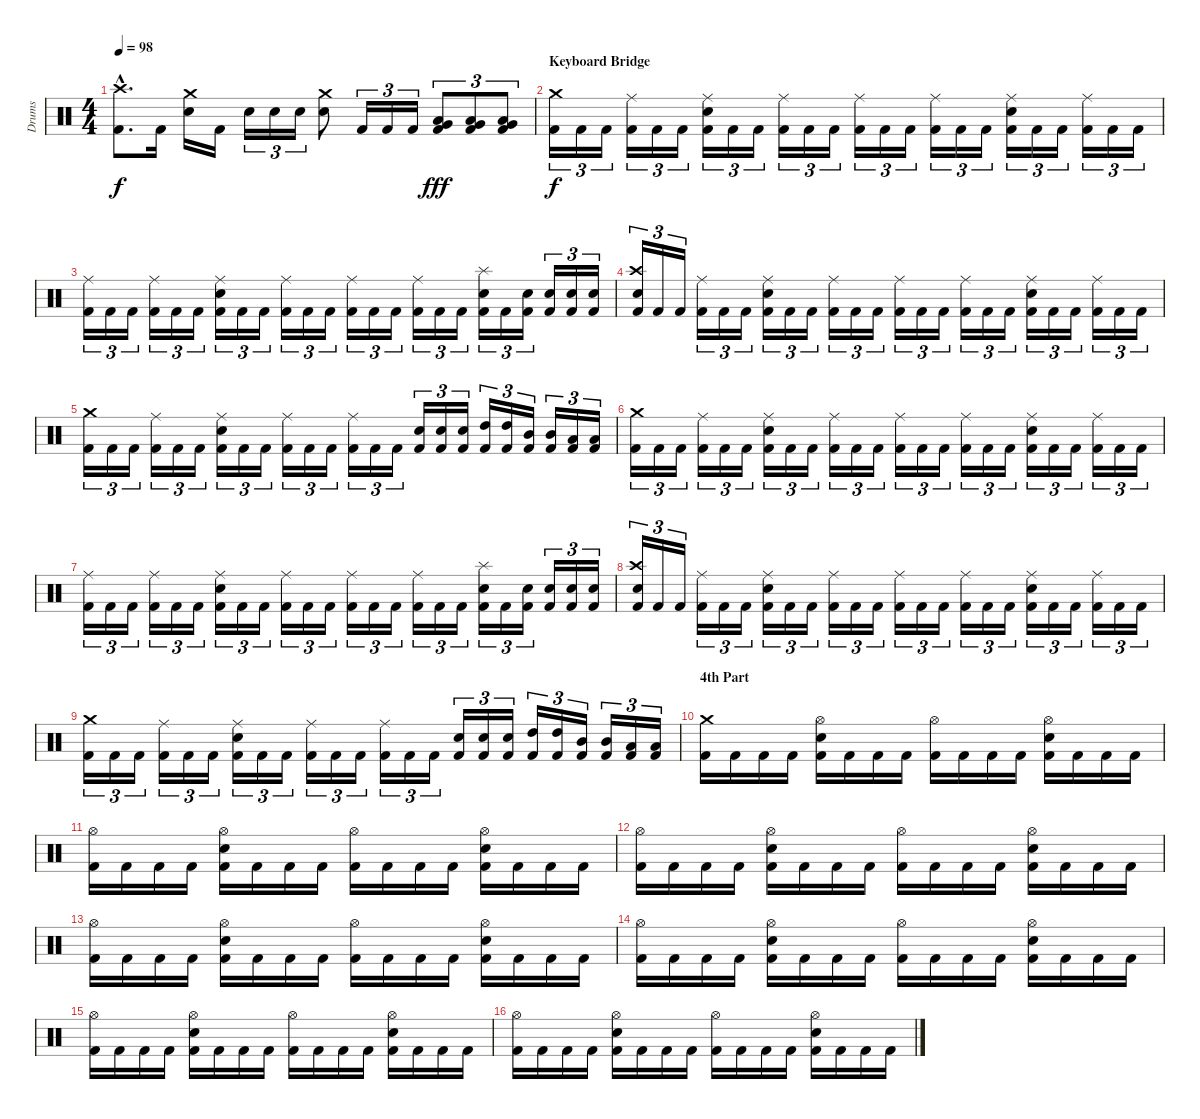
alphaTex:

\track ("Drums" "Drums") {instrument percussion}
\staff {score}
\articulation defaults
\ts (4 4)
\tempo 98
\clef neutral
\ks c
("Kick (hit) 2"{hac} "Crash high (hit)"{hac}).8{d dy f} "Kick (hit) 2".16 ("Electric Snare (hit)" "Crash medium (hit)").16 "Kick (hit) 2".16 "Electric Snare (hit)".16{tu (3 2)} "Electric Snare (hit)".16{tu (3 2)} "Electric Snare (hit)".16{tu (3 2)} ("Electric Snare (hit)" "Crash medium (hit)").8 "Kick (hit) 2".16{tu (3 2)} "Kick (hit) 2".16{tu (3 2)} "Kick (hit) 2".16{tu (3 2)} ("Kick (hit) 2" "Low Tom (hit)" "Very Low Tom (hit)").8{tu (3 2) dy fff} ("Kick (hit) 2" "Low Tom (hit)" "Very Low Tom (hit)").8{tu (3 2)} ("Kick (hit) 2" "Low Tom (hit)" "Very Low Tom (hit)").8{tu (3 2)} |
\section ("" "Keyboard Bridge")
("Kick (hit) 2" "Crash medium (hit)").16{tu (3 2) dy f} "Kick (hit) 2".16{tu (3 2)} "Kick (hit) 2".16{tu (3 2)} ("Kick (hit) 2" "Ride (middle)").16{tu (3 2)} "Kick (hit) 2".16{tu (3 2)} "Kick (hit) 2".16{tu (3 2)} ("Kick (hit) 2" "Electric Snare (hit)" "Ride (middle)").16{tu (3 2)} "Kick (hit) 2".16{tu (3 2)} "Kick (hit) 2".16{tu (3 2)} ("Kick (hit) 2" "Ride (middle)").16{tu (3 2)} "Kick (hit) 2".16{tu (3 2)} "Kick (hit) 2".16{tu (3 2)} ("Kick (hit) 2" "Ride (middle)").16{tu (3 2)} "Kick (hit) 2".16{tu (3 2)} "Kick (hit) 2".16{tu (3 2)} ("Kick (hit) 2" "Ride (middle)").16{tu (3 2)} "Kick (hit) 2".16{tu (3 2)} "Kick (hit) 2".16{tu (3 2)} ("Kick (hit) 2" "Electric Snare (hit)" "Ride (middle)").16{tu (3 2)} "Kick (hit) 2".16{tu (3 2)} "Kick (hit) 2".16{tu (3 2)} ("Kick (hit) 2" "Ride (middle)").16{tu (3 2)} "Kick (hit) 2".16{tu (3 2)} "Kick (hit) 2".16{tu (3 2)} |
("Kick (hit) 2" "Ride (middle)").16{tu (3 2)} "Kick (hit) 2".16{tu (3 2)} "Kick (hit) 2".16{tu (3 2)} ("Kick (hit) 2" "Ride (middle)").16{tu (3 2)} "Kick (hit) 2".16{tu (3 2)} "Kick (hit) 2".16{tu (3 2)} ("Kick (hit) 2" "Electric Snare (hit)" "Ride (middle)").16{tu (3 2)} "Kick (hit) 2".16{tu (3 2)} "Kick (hit) 2".16{tu (3 2)} ("Kick (hit) 2" "Ride (middle)").16{tu (3 2)} "Kick (hit) 2".16{tu (3 2)} "Kick (hit) 2".16{tu (3 2)} ("Kick (hit) 2" "Ride (middle)").16{tu (3 2)} "Kick (hit) 2".16{tu (3 2)} "Kick (hit) 2".16{tu (3 2)} ("Kick (hit) 2" "Ride (middle)").16{tu (3 2)} "Kick (hit) 2".16{tu (3 2)} "Kick (hit) 2".16{tu (3 2)} ("Kick (hit) 2" "Electric Snare (hit)" "Splash (hit)").16{tu (3 2)} "Kick (hit) 2".16{tu (3 2)} ("Kick (hit) 2" "Electric Snare (hit)").16{tu (3 2)} ("Kick (hit) 2" "Electric Snare (hit)").16{tu (3 2)} ("Kick (hit) 2" "Electric Snare (hit)").16{tu (3 2)} ("Kick (hit) 2" "Electric Snare (hit)").16{tu (3 2)} |
("Kick (hit) 2" "Electric Snare (hit)" "Crash high (hit)").16{tu (3 2)} "Kick (hit) 2".16{tu (3 2)} "Kick (hit) 2".16{tu (3 2)} ("Kick (hit) 2" "Ride (middle)").16{tu (3 2)} "Kick (hit) 2".16{tu (3 2)} "Kick (hit) 2".16{tu (3 2)} ("Kick (hit) 2" "Electric Snare (hit)" "Ride (middle)").16{tu (3 2)} "Kick (hit) 2".16{tu (3 2)} "Kick (hit) 2".16{tu (3 2)} ("Kick (hit) 2" "Ride (middle)").16{tu (3 2)} "Kick (hit) 2".16{tu (3 2)} "Kick (hit) 2".16{tu (3 2)} ("Kick (hit) 2" "Ride (middle)").16{tu (3 2)} "Kick (hit) 2".16{tu (3 2)} "Kick (hit) 2".16{tu (3 2)} ("Kick (hit) 2" "Ride (middle)").16{tu (3 2)} "Kick (hit) 2".16{tu (3 2)} "Kick (hit) 2".16{tu (3 2)} ("Kick (hit) 2" "Electric Snare (hit)" "Ride (middle)").16{tu (3 2)} "Kick (hit) 2".16{tu (3 2)} "Kick (hit) 2".16{tu (3 2)} ("Kick (hit) 2" "Ride (middle)").16{tu (3 2)} "Kick (hit) 2".16{tu (3 2)} "Kick (hit) 2".16{tu (3 2)} |
("Kick (hit) 2" "Crash medium (hit)").16{tu (3 2)} "Kick (hit) 2".16{tu (3 2)} "Kick (hit) 2".16{tu (3 2)} ("Kick (hit) 2" "Ride (middle)").16{tu (3 2)} "Kick (hit) 2".16{tu (3 2)} "Kick (hit) 2".16{tu (3 2)} ("Kick (hit) 2" "Electric Snare (hit)" "Ride (middle)").16{tu (3 2)} "Kick (hit) 2".16{tu (3 2)} "Kick (hit) 2".16{tu (3 2)} ("Kick (hit) 2" "Ride (middle)").16{tu (3 2)} "Kick (hit) 2".16{tu (3 2)} "Kick (hit) 2".16{tu (3 2)} ("Kick (hit) 2" "Ride (middle)").16{tu (3 2)} "Kick (hit) 2".16{tu (3 2)} "Kick (hit) 2".16{tu (3 2)} ("Kick (hit) 2" "Electric Snare (hit)").16{tu (3 2)} ("Kick (hit) 2" "Electric Snare (hit)").16{tu (3 2)} ("Kick (hit) 2" "Electric Snare (hit)").16{tu (3 2)} ("Kick (hit) 2" "High Tom (hit)").16{tu (3 2)} ("Kick (hit) 2" "High Tom (hit)").16{tu (3 2)} ("Kick (hit) 2" "Mid Tom (hit)").16{tu (3 2)} ("Kick (hit) 2" "Mid Tom (hit)").16{tu (3 2)} ("Kick (hit) 2" "Low Tom (hit)").16{tu (3 2)} ("Kick (hit) 2" "Low Tom (hit)").16{tu (3 2)} |
("Kick (hit) 2" "Crash medium (hit)").16{tu (3 2)} "Kick (hit) 2".16{tu (3 2)} "Kick (hit) 2".16{tu (3 2)} ("Kick (hit) 2" "Ride (middle)").16{tu (3 2)} "Kick (hit) 2".16{tu (3 2)} "Kick (hit) 2".16{tu (3 2)} ("Kick (hit) 2" "Electric Snare (hit)" "Ride (middle)").16{tu (3 2)} "Kick (hit) 2".16{tu (3 2)} "Kick (hit) 2".16{tu (3 2)} ("Kick (hit) 2" "Ride (middle)").16{tu (3 2)} "Kick (hit) 2".16{tu (3 2)} "Kick (hit) 2".16{tu (3 2)} ("Kick (hit) 2" "Ride (middle)").16{tu (3 2)} "Kick (hit) 2".16{tu (3 2)} "Kick (hit) 2".16{tu (3 2)} ("Kick (hit) 2" "Ride (middle)").16{tu (3 2)} "Kick (hit) 2".16{tu (3 2)} "Kick (hit) 2".16{tu (3 2)} ("Kick (hit) 2" "Electric Snare (hit)" "Ride (middle)").16{tu (3 2)} "Kick (hit) 2".16{tu (3 2)} "Kick (hit) 2".16{tu (3 2)} ("Kick (hit) 2" "Ride (middle)").16{tu (3 2)} "Kick (hit) 2".16{tu (3 2)} "Kick (hit) 2".16{tu (3 2)} |
("Kick (hit) 2" "Ride (middle)").16{tu (3 2)} "Kick (hit) 2".16{tu (3 2)} "Kick (hit) 2".16{tu (3 2)} ("Kick (hit) 2" "Ride (middle)").16{tu (3 2)} "Kick (hit) 2".16{tu (3 2)} "Kick (hit) 2".16{tu (3 2)} ("Kick (hit) 2" "Electric Snare (hit)" "Ride (middle)").16{tu (3 2)} "Kick (hit) 2".16{tu (3 2)} "Kick (hit) 2".16{tu (3 2)} ("Kick (hit) 2" "Ride (middle)").16{tu (3 2)} "Kick (hit) 2".16{tu (3 2)} "Kick (hit) 2".16{tu (3 2)} ("Kick (hit) 2" "Ride (middle)").16{tu (3 2)} "Kick (hit) 2".16{tu (3 2)} "Kick (hit) 2".16{tu (3 2)} ("Kick (hit) 2" "Ride (middle)").16{tu (3 2)} "Kick (hit) 2".16{tu (3 2)} "Kick (hit) 2".16{tu (3 2)} ("Kick (hit) 2" "Electric Snare (hit)" "Splash (hit)").16{tu (3 2)} "Kick (hit) 2".16{tu (3 2)} ("Kick (hit) 2" "Electric Snare (hit)").16{tu (3 2)} ("Kick (hit) 2" "Electric Snare (hit)").16{tu (3 2)} ("Kick (hit) 2" "Electric Snare (hit)").16{tu (3 2)} ("Kick (hit) 2" "Electric Snare (hit)").16{tu (3 2)} |
("Kick (hit) 2" "Electric Snare (hit)" "Crash high (hit)").16{tu (3 2)} "Kick (hit) 2".16{tu (3 2)} "Kick (hit) 2".16{tu (3 2)} ("Kick (hit) 2" "Ride (middle)").16{tu (3 2)} "Kick (hit) 2".16{tu (3 2)} "Kick (hit) 2".16{tu (3 2)} ("Kick (hit) 2" "Electric Snare (hit)" "Ride (middle)").16{tu (3 2)} "Kick (hit) 2".16{tu (3 2)} "Kick (hit) 2".16{tu (3 2)} ("Kick (hit) 2" "Ride (middle)").16{tu (3 2)} "Kick (hit) 2".16{tu (3 2)} "Kick (hit) 2".16{tu (3 2)} ("Kick (hit) 2" "Ride (middle)").16{tu (3 2)} "Kick (hit) 2".16{tu (3 2)} "Kick (hit) 2".16{tu (3 2)} ("Kick (hit) 2" "Ride (middle)").16{tu (3 2)} "Kick (hit) 2".16{tu (3 2)} "Kick (hit) 2".16{tu (3 2)} ("Kick (hit) 2" "Electric Snare (hit)" "Ride (middle)").16{tu (3 2)} "Kick (hit) 2".16{tu (3 2)} "Kick (hit) 2".16{tu (3 2)} ("Kick (hit) 2" "Ride (middle)").16{tu (3 2)} "Kick (hit) 2".16{tu (3 2)} "Kick (hit) 2".16{tu (3 2)} |
("Kick (hit) 2" "Crash medium (hit)").16{tu (3 2)} "Kick (hit) 2".16{tu (3 2)} "Kick (hit) 2".16{tu (3 2)} ("Kick (hit) 2" "Ride (middle)").16{tu (3 2)} "Kick (hit) 2".16{tu (3 2)} "Kick (hit) 2".16{tu (3 2)} ("Kick (hit) 2" "Electric Snare (hit)" "Ride (middle)").16{tu (3 2)} "Kick (hit) 2".16{tu (3 2)} "Kick (hit) 2".16{tu (3 2)} ("Kick (hit) 2" "Ride (middle)").16{tu (3 2)} "Kick (hit) 2".16{tu (3 2)} "Kick (hit) 2".16{tu (3 2)} ("Kick (hit) 2" "Ride (middle)").16{tu (3 2)} "Kick (hit) 2".16{tu (3 2)} "Kick (hit) 2".16{tu (3 2)} ("Kick (hit) 2" "Electric Snare (hit)").16{tu (3 2)} ("Kick (hit) 2" "Electric Snare (hit)").16{tu (3 2)} ("Kick (hit) 2" "Electric Snare (hit)").16{tu (3 2)} ("Kick (hit) 2" "High Tom (hit)").16{tu (3 2)} ("Kick (hit) 2" "High Tom (hit)").16{tu (3 2)} ("Kick (hit) 2" "Mid Tom (hit)").16{tu (3 2)} ("Kick (hit) 2" "Mid Tom (hit)").16{tu (3 2)} ("Kick (hit) 2" "Low Tom (hit)").16{tu (3 2)} ("Kick (hit) 2" "Low Tom (hit)").16{tu (3 2)} |
\section ("" "4th Part")
("Kick (hit) 2" "Crash medium (hit)").16 "Kick (hit) 2".16 "Kick (hit) 2".16 "Kick (hit) 2".16 ("Kick (hit) 2" "Electric Snare (hit)" "Hi-Hat (open)").16 "Kick (hit) 2".16 "Kick (hit) 2".16 "Kick (hit) 2".16 ("Kick (hit) 2" "Hi-Hat (open)").16 "Kick (hit) 2".16 "Kick (hit) 2".16 "Kick (hit) 2".16 ("Kick (hit) 2" "Electric Snare (hit)" "Hi-Hat (open)").16 "Kick (hit) 2".16 "Kick (hit) 2".16 "Kick (hit) 2".16 |
("Kick (hit) 2" "Hi-Hat (open)").16 "Kick (hit) 2".16 "Kick (hit) 2".16 "Kick (hit) 2".16 ("Kick (hit) 2" "Electric Snare (hit)" "Hi-Hat (open)").16 "Kick (hit) 2".16 "Kick (hit) 2".16 "Kick (hit) 2".16 ("Kick (hit) 2" "Hi-Hat (open)").16 "Kick (hit) 2".16 "Kick (hit) 2".16 "Kick (hit) 2".16 ("Kick (hit) 2" "Electric Snare (hit)" "Hi-Hat (open)").16 "Kick (hit) 2".16 "Kick (hit) 2".16 "Kick (hit) 2".16 |
("Kick (hit) 2" "Hi-Hat (open)").16 "Kick (hit) 2".16 "Kick (hit) 2".16 "Kick (hit) 2".16 ("Kick (hit) 2" "Electric Snare (hit)" "Hi-Hat (open)").16 "Kick (hit) 2".16 "Kick (hit) 2".16 "Kick (hit) 2".16 ("Kick (hit) 2" "Hi-Hat (open)").16 "Kick (hit) 2".16 "Kick (hit) 2".16 "Kick (hit) 2".16 ("Kick (hit) 2" "Electric Snare (hit)" "Hi-Hat (open)").16 "Kick (hit) 2".16 "Kick (hit) 2".16 "Kick (hit) 2".16 |
("Kick (hit) 2" "Hi-Hat (open)").16 "Kick (hit) 2".16 "Kick (hit) 2".16 "Kick (hit) 2".16 ("Kick (hit) 2" "Electric Snare (hit)" "Hi-Hat (open)").16 "Kick (hit) 2".16 "Kick (hit) 2".16 "Kick (hit) 2".16 ("Kick (hit) 2" "Hi-Hat (open)").16 "Kick (hit) 2".16 "Kick (hit) 2".16 "Kick (hit) 2".16 ("Kick (hit) 2" "Electric Snare (hit)" "Hi-Hat (open)").16 "Kick (hit) 2".16 "Kick (hit) 2".16 "Kick (hit) 2".16 |
("Kick (hit) 2" "Hi-Hat (open)").16 "Kick (hit) 2".16 "Kick (hit) 2".16 "Kick (hit) 2".16 ("Kick (hit) 2" "Electric Snare (hit)" "Hi-Hat (open)").16 "Kick (hit) 2".16 "Kick (hit) 2".16 "Kick (hit) 2".16 ("Kick (hit) 2" "Hi-Hat (open)").16 "Kick (hit) 2".16 "Kick (hit) 2".16 "Kick (hit) 2".16 ("Kick (hit) 2" "Electric Snare (hit)" "Hi-Hat (open)").16 "Kick (hit) 2".16 "Kick (hit) 2".16 "Kick (hit) 2".16 |
("Kick (hit) 2" "Hi-Hat (open)").16 "Kick (hit) 2".16 "Kick (hit) 2".16 "Kick (hit) 2".16 ("Kick (hit) 2" "Electric Snare (hit)" "Hi-Hat (open)").16 "Kick (hit) 2".16 "Kick (hit) 2".16 "Kick (hit) 2".16 ("Kick (hit) 2" "Hi-Hat (open)").16 "Kick (hit) 2".16 "Kick (hit) 2".16 "Kick (hit) 2".16 ("Kick (hit) 2" "Electric Snare (hit)" "Hi-Hat (open)").16 "Kick (hit) 2".16 "Kick (hit) 2".16 "Kick (hit) 2".16 |
("Kick (hit) 2" "Hi-Hat (open)").16 "Kick (hit) 2".16 "Kick (hit) 2".16 "Kick (hit) 2".16 ("Kick (hit) 2" "Electric Snare (hit)" "Hi-Hat (open)").16 "Kick (hit) 2".16 "Kick (hit) 2".16 "Kick (hit) 2".16 ("Kick (hit) 2" "Hi-Hat (open)").16 "Kick (hit) 2".16 "Kick (hit) 2".16 "Kick (hit) 2".16 ("Kick (hit) 2" "Electric Snare (hit)" "Hi-Hat (open)").16 "Kick (hit) 2".16 "Kick (hit) 2".16 "Kick (hit) 2".16
